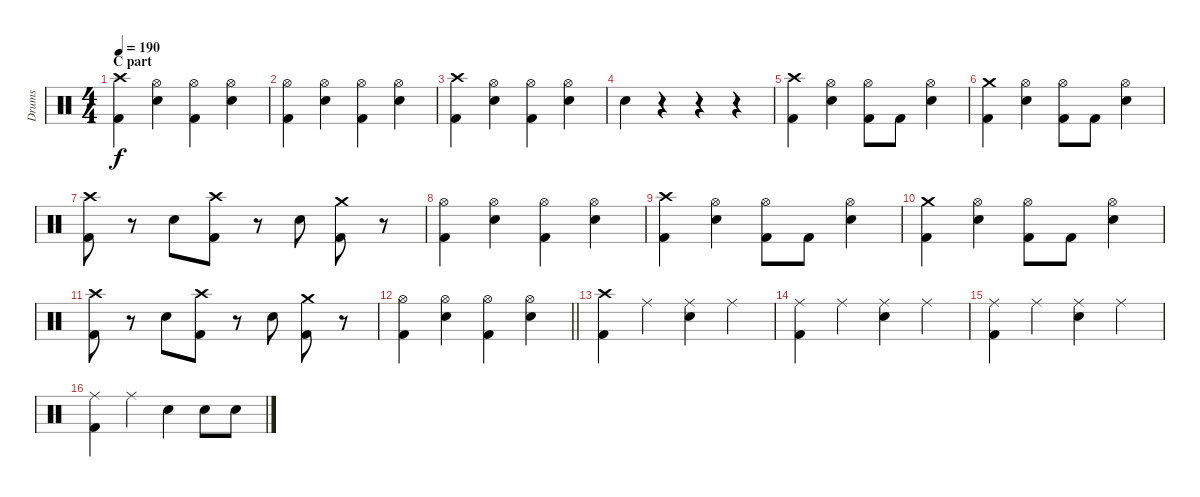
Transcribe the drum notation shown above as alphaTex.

\track ("Drums" "Drums") {instrument percussion}
\staff {score}
\articulation defaults
\ts (4 4)
\section ("" "C part")
\tempo 190
\clef neutral
\ks c
("Crash high (hit)" "Kick (hit) 2").4{dy f} ("Hi-Hat (open)" "Snare (hit) 2").4 ("Hi-Hat (open)" "Kick (hit) 2").4 ("Hi-Hat (open)" "Snare (hit) 2").4 |
("Hi-Hat (open)" "Kick (hit) 2").4 ("Hi-Hat (open)" "Snare (hit) 2").4 ("Hi-Hat (open)" "Kick (hit) 2").4 ("Hi-Hat (open)" "Snare (hit) 2").4 |
("Crash high (hit)" "Kick (hit) 2").4 ("Hi-Hat (open)" "Snare (hit) 2").4 ("Hi-Hat (open)" "Kick (hit) 2").4 ("Hi-Hat (open)" "Snare (hit) 2").4 |
"Snare (hit) 2".4 r.4 r.4 r.4 |
("Crash high (hit)" "Kick (hit) 2").4 ("Hi-Hat (open)" "Snare (hit) 2").4 ("Hi-Hat (open)" "Kick (hit) 2").8 "Kick (hit) 2".8 ("Hi-Hat (open)" "Snare (hit) 2").4 |
("Crash medium (hit)" "Kick (hit) 2").4 ("Hi-Hat (open)" "Snare (hit) 2").4 ("Hi-Hat (open)" "Kick (hit) 2").8 "Kick (hit) 2".8 ("Hi-Hat (open)" "Snare (hit) 2").4 |
("Crash high (hit)" "Kick (hit) 2").8 r.8 "Snare (hit) 2".8 ("Crash high (hit)" "Kick (hit) 2").8 r.8 "Snare (hit) 2".8 ("Crash medium (hit)" "Kick (hit) 2").8 r.8 |
("Hi-Hat (open)" "Kick (hit) 2").4 ("Hi-Hat (open)" "Snare (hit) 2").4 ("Hi-Hat (open)" "Kick (hit) 2").4 ("Hi-Hat (open)" "Snare (hit) 2").4 |
("Crash high (hit)" "Kick (hit) 2").4 ("Hi-Hat (open)" "Snare (hit) 2").4 ("Hi-Hat (open)" "Kick (hit) 2").8 "Kick (hit) 2".8 ("Hi-Hat (open)" "Snare (hit) 2").4 |
("Crash medium (hit)" "Kick (hit) 2").4 ("Hi-Hat (open)" "Snare (hit) 2").4 ("Hi-Hat (open)" "Kick (hit) 2").8 "Kick (hit) 2".8 ("Hi-Hat (open)" "Snare (hit) 2").4 |
("Crash high (hit)" "Kick (hit) 2").8 r.8 "Snare (hit) 2".8 ("Crash high (hit)" "Kick (hit) 2").8 r.8 "Snare (hit) 2".8 ("Crash medium (hit)" "Kick (hit) 2").8 r.8 |
\barLineRight lightlight
("Hi-Hat (open)" "Kick (hit) 2").4 ("Hi-Hat (open)" "Snare (hit) 2").4 ("Hi-Hat (open)" "Kick (hit) 2").4 ("Hi-Hat (open)" "Snare (hit) 2").4 |
\section ("" "")
("Crash high (hit)" "Kick (hit) 2").4 "Ride (middle)".4 ("Ride (middle)" "Snare (hit) 2").4 "Ride (middle)".4 |
("Ride (middle)" "Kick (hit) 2").4 "Ride (middle)".4 ("Ride (middle)" "Snare (hit) 2").4 "Ride (middle)".4 |
("Ride (middle)" "Kick (hit) 2").4 "Ride (middle)".4 ("Ride (middle)" "Snare (hit) 2").4 "Ride (middle)".4 |
("Ride (middle)" "Kick (hit) 2").4 "Ride (middle)".4 "Snare (hit) 2".4 "Snare (hit) 2".8 "Snare (hit) 2".8
